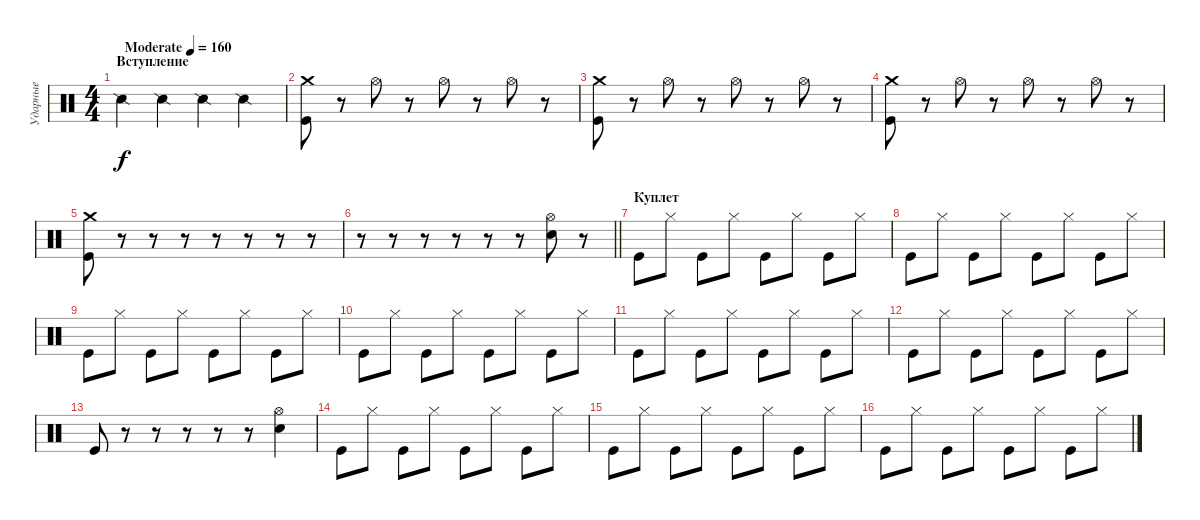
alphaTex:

\track ("Ударные" "Ударные") {instrument percussion}
\staff {score}
\articulation defaults
\ts (4 4)
\section ("" "Вступление")
\tempo (160 "Moderate")
\clef neutral
\ks c "Snare (side stick) 2".4{dy f} "Snare (side stick) 2".4 "Snare (side stick) 2".4 "Snare (side stick) 2".4
|
("Crash medium (hit)" "Kick (hit)").8 r.8 "Hi-Hat (open)".8 r.8 "Hi-Hat (open)".8 r.8 "Hi-Hat (open)".8 r.8 |
("Crash medium (hit)" "Kick (hit)").8 r.8 "Hi-Hat (open)".8 r.8 "Hi-Hat (open)".8 r.8 "Hi-Hat (open)".8 r.8 |
("Crash medium (hit)" "Kick (hit)").8 r.8 "Hi-Hat (open)".8 r.8 "Hi-Hat (open)".8 r.8 "Hi-Hat (open)".8 r.8 |
("Crash medium (hit)" "Kick (hit)").8 r.8 r.8 r.8 r.8 r.8 r.8 r.8 |
\barLineRight lightlight
r.8 r.8 r.8 r.8 r.8 r.8 ("Hi-Hat (open)" "Electric Snare (hit)").8 r.8 |
\section ("" "Куплет")
"Kick (hit)".8 "Hi-Hat (closed)".8 "Kick (hit)".8 "Hi-Hat (closed)".8 "Kick (hit)".8 "Hi-Hat (closed)".8 "Kick (hit)".8 "Hi-Hat (closed)".8 |
"Kick (hit)".8 "Hi-Hat (closed)".8 "Kick (hit)".8 "Hi-Hat (closed)".8 "Kick (hit)".8 "Hi-Hat (closed)".8 "Kick (hit)".8 "Hi-Hat (closed)".8 |
"Kick (hit)".8 "Hi-Hat (closed)".8 "Kick (hit)".8 "Hi-Hat (closed)".8 "Kick (hit)".8 "Hi-Hat (closed)".8 "Kick (hit)".8 "Hi-Hat (closed)".8 |
"Kick (hit)".8 "Hi-Hat (closed)".8 "Kick (hit)".8 "Hi-Hat (closed)".8 "Kick (hit)".8 "Hi-Hat (closed)".8 "Kick (hit)".8 "Hi-Hat (closed)".8 |
"Kick (hit)".8 "Hi-Hat (closed)".8 "Kick (hit)".8 "Hi-Hat (closed)".8 "Kick (hit)".8 "Hi-Hat (closed)".8 "Kick (hit)".8 "Hi-Hat (closed)".8 |
"Kick (hit)".8 "Hi-Hat (closed)".8 "Kick (hit)".8 "Hi-Hat (closed)".8 "Kick (hit)".8 "Hi-Hat (closed)".8 "Kick (hit)".8 "Hi-Hat (closed)".8 |
"Kick (hit)".8 r.8 r.8 r.8 r.8 r.8 ("Hi-Hat (open)" "Electric Snare (hit)").4 |
"Kick (hit)".8 "Hi-Hat (closed)".8 "Kick (hit)".8 "Hi-Hat (closed)".8 "Kick (hit)".8 "Hi-Hat (closed)".8 "Kick (hit)".8 "Hi-Hat (closed)".8 |
"Kick (hit)".8 "Hi-Hat (closed)".8 "Kick (hit)".8 "Hi-Hat (closed)".8 "Kick (hit)".8 "Hi-Hat (closed)".8 "Kick (hit)".8 "Hi-Hat (closed)".8 |
"Kick (hit)".8 "Hi-Hat (closed)".8 "Kick (hit)".8 "Hi-Hat (closed)".8 "Kick (hit)".8 "Hi-Hat (closed)".8 "Kick (hit)".8 "Hi-Hat (closed)".8
